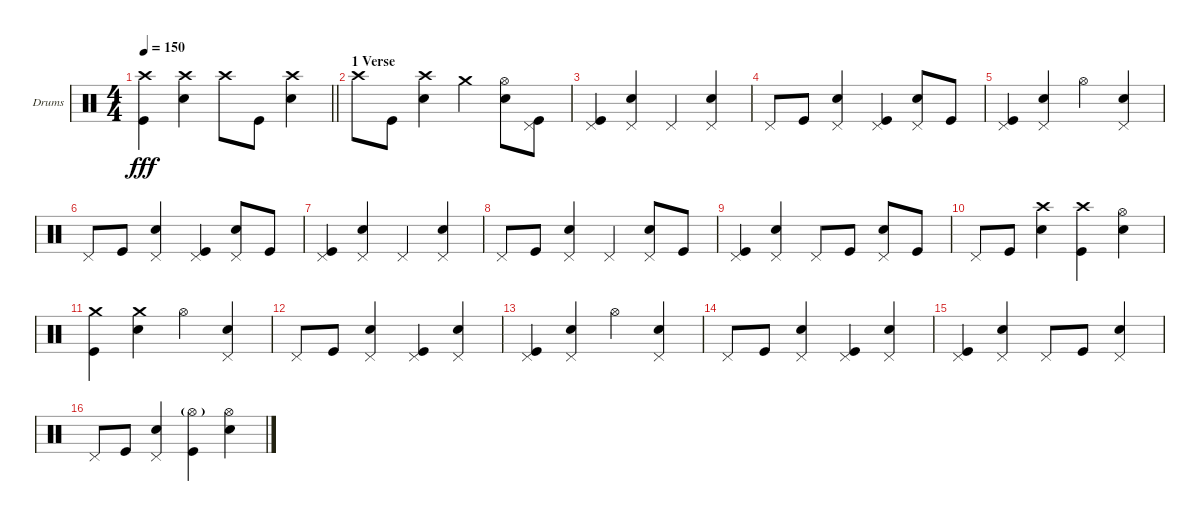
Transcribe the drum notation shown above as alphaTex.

\bracketExtendMode groupsimilarinstruments
\firstSystemTrackNameOrientation horizontal
\otherSystemsTrackNameOrientation horizontal
\track ("Drumkit" "Drums") {instrument percussion}
\staff {score}
\articulation defaults
\ts (4 4)
\tempo 150
\clef neutral
\barLineRight lightlight
\ks c
("Crash high (hit)" "Kick (hit)").4{dy fff} ("Crash high (hit)" "Snare (hit) 2").4 "Crash high (hit)".8 "Kick (hit)".8 ("Crash high (hit)" "Snare (hit) 2").4 |
\section ("" "1 Verse")
"Crash high (hit)".8 "Kick (hit)".8 ("Crash high (hit)" "Snare (hit) 2").4 "Crash medium (hit)".4 ("Hi-Hat (open)" "Snare (hit) 2").8 ("Pedal Hi-Hat (hit)" "Kick (hit)").8 |
("Pedal Hi-Hat (hit)" "Kick (hit)").4 ("Pedal Hi-Hat (hit)" "Snare (hit) 2").4 "Pedal Hi-Hat (hit)".4 ("Pedal Hi-Hat (hit)" "Snare (hit) 2").4 |
"Pedal Hi-Hat (hit)".8 "Kick (hit)".8 ("Pedal Hi-Hat (hit)" "Snare (hit) 2").4 ("Pedal Hi-Hat (hit)" "Kick (hit)").4 ("Pedal Hi-Hat (hit)" "Snare (hit) 2").8 "Kick (hit)".8 |
("Pedal Hi-Hat (hit)" "Kick (hit)").4 ("Pedal Hi-Hat (hit)" "Snare (hit) 2").4 "Hi-Hat (open)".4 ("Pedal Hi-Hat (hit)" "Snare (hit) 2").4 |
"Pedal Hi-Hat (hit)".8 "Kick (hit)".8 ("Pedal Hi-Hat (hit)" "Snare (hit) 2").4 ("Pedal Hi-Hat (hit)" "Kick (hit)").4 ("Pedal Hi-Hat (hit)" "Snare (hit) 2").8 "Kick (hit)".8 |
("Pedal Hi-Hat (hit)" "Kick (hit)").4 ("Pedal Hi-Hat (hit)" "Snare (hit) 2").4 "Pedal Hi-Hat (hit)".4 ("Pedal Hi-Hat (hit)" "Snare (hit) 2").4 |
"Pedal Hi-Hat (hit)".8 "Kick (hit)".8 ("Pedal Hi-Hat (hit)" "Snare (hit) 2").4 "Pedal Hi-Hat (hit)".4 ("Pedal Hi-Hat (hit)" "Snare (hit) 2").8 "Kick (hit)".8 |
("Pedal Hi-Hat (hit)" "Kick (hit)").4 ("Pedal Hi-Hat (hit)" "Snare (hit) 2").4 "Pedal Hi-Hat (hit)".8 "Kick (hit)".8 ("Pedal Hi-Hat (hit)" "Snare (hit) 2").8 "Kick (hit)".8 |
"Pedal Hi-Hat (hit)".8 "Kick (hit)".8 ("Crash high (hit)" "Snare (hit) 2").4 ("Crash high (hit)" "Kick (hit)").4 ("Hi-Hat (open)" "Snare (hit) 2").4 |
("Crash medium (hit)" "Kick (hit)").4 ("Crash medium (hit)" "Snare (hit) 2").4 "Hi-Hat (open)".4 ("Pedal Hi-Hat (hit)" "Snare (hit) 2").4 |
"Pedal Hi-Hat (hit)".8 "Kick (hit)".8 ("Pedal Hi-Hat (hit)" "Snare (hit) 2").4 ("Pedal Hi-Hat (hit)" "Kick (hit)").4 ("Pedal Hi-Hat (hit)" "Snare (hit) 2").4 |
("Pedal Hi-Hat (hit)" "Kick (hit)").4 ("Pedal Hi-Hat (hit)" "Snare (hit) 2").4 "Hi-Hat (open)".4 ("Pedal Hi-Hat (hit)" "Snare (hit) 2").4 |
"Pedal Hi-Hat (hit)".8 "Kick (hit)".8 ("Pedal Hi-Hat (hit)" "Snare (hit) 2").4 ("Pedal Hi-Hat (hit)" "Kick (hit)").4 ("Pedal Hi-Hat (hit)" "Snare (hit) 2").4 |
("Pedal Hi-Hat (hit)" "Kick (hit)").4 ("Pedal Hi-Hat (hit)" "Snare (hit) 2").4 "Pedal Hi-Hat (hit)".8 "Kick (hit)".8 ("Pedal Hi-Hat (hit)" "Snare (hit) 2").4 |
"Pedal Hi-Hat (hit)".8 "Kick (hit)".8 ("Pedal Hi-Hat (hit)" "Snare (hit) 2").4 ("Hi-Hat (open)"{g} "Kick (hit)").4 ("Hi-Hat (open)" "Snare (hit) 2").4
